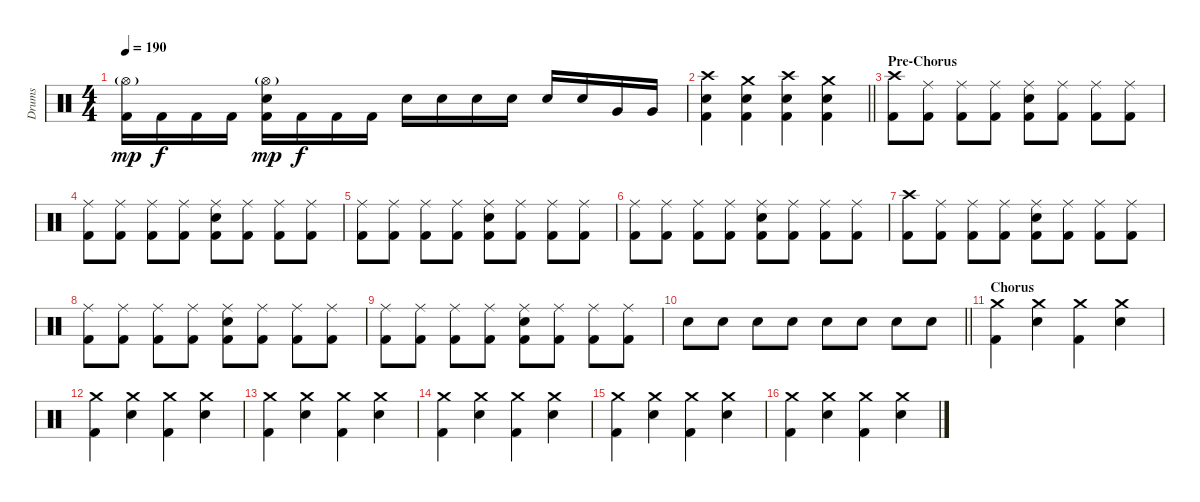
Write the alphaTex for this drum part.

\track ("Drums" "Drums") {instrument percussion}
\staff {score}
\articulation defaults
\ts (4 4)
\tempo 190
\clef neutral
\ks c
("Hi-Hat (open)"{g} "Kick (hit) 2").16{dy mp} "Kick (hit) 2".16{dy f} "Kick (hit) 2".16 "Kick (hit) 2".16 ("Hi-Hat (open)"{g} "Electric Snare (hit)" "Kick (hit) 2").16{dy mp} "Kick (hit) 2".16{dy f} "Kick (hit) 2".16 "Kick (hit) 2".16 "Electric Snare (hit)".16 "Electric Snare (hit)".16 "Electric Snare (hit)".16 "Electric Snare (hit)".16 "Electric Snare (hit)".16 "Electric Snare (hit)".16 "Very Low Tom (hit)".16 "Very Low Tom (hit)".16 |
\barLineRight lightlight
("Crash high (hit)" "Electric Snare (hit)" "Kick (hit) 2").4 ("Crash medium (hit)" "Electric Snare (hit)" "Kick (hit) 2").4 ("Crash high (hit)" "Electric Snare (hit)" "Kick (hit) 2").4 ("Crash medium (hit)" "Electric Snare (hit)" "Kick (hit) 2").4 |
\section ("" "Pre-Chorus")
("Crash high (hit)" "Kick (hit) 2").8 ("Ride (middle)" "Kick (hit) 2").8 ("Ride (middle)" "Kick (hit) 2").8 ("Ride (middle)" "Kick (hit) 2").8 ("Ride (middle)" "Electric Snare (hit)" "Kick (hit) 2").8 ("Ride (middle)" "Kick (hit) 2").8 ("Ride (middle)" "Kick (hit) 2").8 ("Ride (middle)" "Kick (hit) 2").8 |
("Ride (middle)" "Kick (hit) 2").8 ("Ride (middle)" "Kick (hit) 2").8 ("Ride (middle)" "Kick (hit) 2").8 ("Ride (middle)" "Kick (hit) 2").8 ("Ride (middle)" "Electric Snare (hit)" "Kick (hit) 2").8 ("Ride (middle)" "Kick (hit) 2").8 ("Ride (middle)" "Kick (hit) 2").8 ("Ride (middle)" "Kick (hit) 2").8 |
("Ride (middle)" "Kick (hit) 2").8 ("Ride (middle)" "Kick (hit) 2").8 ("Ride (middle)" "Kick (hit) 2").8 ("Ride (middle)" "Kick (hit) 2").8 ("Ride (middle)" "Electric Snare (hit)" "Kick (hit) 2").8 ("Ride (middle)" "Kick (hit) 2").8 ("Ride (middle)" "Kick (hit) 2").8 ("Ride (middle)" "Kick (hit) 2").8 |
("Ride (middle)" "Kick (hit) 2").8 ("Ride (middle)" "Kick (hit) 2").8 ("Ride (middle)" "Kick (hit) 2").8 ("Ride (middle)" "Kick (hit) 2").8 ("Ride (middle)" "Electric Snare (hit)" "Kick (hit) 2").8 ("Ride (middle)" "Kick (hit) 2").8 ("Ride (middle)" "Kick (hit) 2").8 ("Ride (middle)" "Kick (hit) 2").8 |
("Crash high (hit)" "Kick (hit) 2").8 ("Ride (middle)" "Kick (hit) 2").8 ("Ride (middle)" "Kick (hit) 2").8 ("Ride (middle)" "Kick (hit) 2").8 ("Ride (middle)" "Electric Snare (hit)" "Kick (hit) 2").8 ("Ride (middle)" "Kick (hit) 2").8 ("Ride (middle)" "Kick (hit) 2").8 ("Ride (middle)" "Kick (hit) 2").8 |
("Ride (middle)" "Kick (hit) 2").8 ("Ride (middle)" "Kick (hit) 2").8 ("Ride (middle)" "Kick (hit) 2").8 ("Ride (middle)" "Kick (hit) 2").8 ("Ride (middle)" "Electric Snare (hit)" "Kick (hit) 2").8 ("Ride (middle)" "Kick (hit) 2").8 ("Ride (middle)" "Kick (hit) 2").8 ("Ride (middle)" "Kick (hit) 2").8 |
("Ride (middle)" "Kick (hit) 2").8 ("Ride (middle)" "Kick (hit) 2").8 ("Ride (middle)" "Kick (hit) 2").8 ("Ride (middle)" "Kick (hit) 2").8 ("Ride (middle)" "Electric Snare (hit)" "Kick (hit) 2").8 ("Ride (middle)" "Kick (hit) 2").8 ("Ride (middle)" "Kick (hit) 2").8 ("Ride (middle)" "Kick (hit) 2").8 |
\barLineRight lightlight "Electric Snare (hit)".8 "Electric Snare (hit)".8 "Electric Snare (hit)".8 "Electric Snare (hit)".8 "Electric Snare (hit)".8 "Electric Snare (hit)".8 "Electric Snare (hit)".8 "Electric Snare (hit)".8
|
\section ("" "Chorus")
("Crash medium (hit)" "Kick (hit) 2").4 ("Crash medium (hit)" "Electric Snare (hit)").4 ("Crash medium (hit)" "Kick (hit) 2").4 ("Crash medium (hit)" "Electric Snare (hit)").4 |
("Crash medium (hit)" "Kick (hit) 2").4 ("Crash medium (hit)" "Electric Snare (hit)").4 ("Crash medium (hit)" "Kick (hit) 2").4 ("Crash medium (hit)" "Electric Snare (hit)").4 |
("Crash medium (hit)" "Kick (hit) 2").4 ("Crash medium (hit)" "Electric Snare (hit)").4 ("Crash medium (hit)" "Kick (hit) 2").4 ("Crash medium (hit)" "Electric Snare (hit)").4 |
("Crash medium (hit)" "Kick (hit) 2").4 ("Crash medium (hit)" "Electric Snare (hit)").4 ("Crash medium (hit)" "Kick (hit) 2").4 ("Crash medium (hit)" "Electric Snare (hit)").4 |
("Crash medium (hit)" "Kick (hit) 2").4 ("Crash medium (hit)" "Electric Snare (hit)").4 ("Crash medium (hit)" "Kick (hit) 2").4 ("Crash medium (hit)" "Electric Snare (hit)").4 |
("Crash medium (hit)" "Kick (hit) 2").4 ("Crash medium (hit)" "Electric Snare (hit)").4 ("Crash medium (hit)" "Kick (hit) 2").4 ("Crash medium (hit)" "Electric Snare (hit)").4
